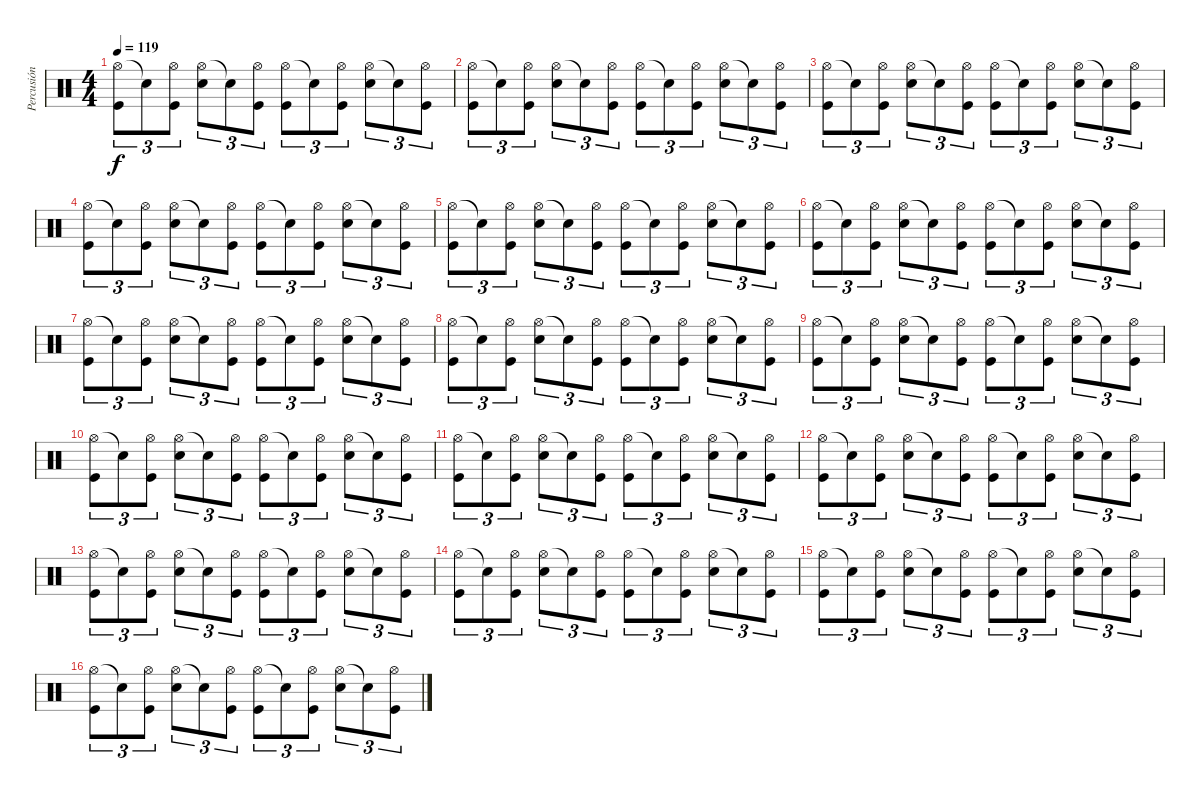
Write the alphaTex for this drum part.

\track ("Percusión" "Percusión") {instrument percussion}
\staff {score}
\articulation defaults
\ts (4 4)
\tempo 119
\clef neutral
\ks c
("Hi-Hat (open)" "Kick (hit)").8{tu (3 2) dy f} "Snare (hit)"{t}.8{tu (3 2)} ("Hi-Hat (open)" "Kick (hit)").8{tu (3 2)} ("Hi-Hat (open)" "Snare (hit) 2").8{tu (3 2)} "Snare (hit)"{t}.8{tu (3 2)} ("Hi-Hat (open)" "Kick (hit)").8{tu (3 2)} ("Hi-Hat (open)" "Kick (hit)").8{tu (3 2)} "Snare (hit)"{t}.8{tu (3 2)} ("Hi-Hat (open)" "Kick (hit)").8{tu (3 2)} ("Hi-Hat (open)" "Snare (hit) 2").8{tu (3 2)} "Snare (hit)"{t}.8{tu (3 2)} ("Hi-Hat (open)" "Kick (hit)").8{tu (3 2)} |
("Hi-Hat (open)" "Kick (hit)").8{tu (3 2)} "Snare (hit)"{t}.8{tu (3 2)} ("Hi-Hat (open)" "Kick (hit)").8{tu (3 2)} ("Hi-Hat (open)" "Snare (hit) 2").8{tu (3 2)} "Snare (hit)"{t}.8{tu (3 2)} ("Hi-Hat (open)" "Kick (hit)").8{tu (3 2)} ("Hi-Hat (open)" "Kick (hit)").8{tu (3 2)} "Snare (hit)"{t}.8{tu (3 2)} ("Hi-Hat (open)" "Kick (hit)").8{tu (3 2)} ("Hi-Hat (open)" "Snare (hit) 2").8{tu (3 2)} "Snare (hit)"{t}.8{tu (3 2)} ("Hi-Hat (open)" "Kick (hit)").8{tu (3 2)} |
("Hi-Hat (open)" "Kick (hit)").8{tu (3 2)} "Snare (hit)"{t}.8{tu (3 2)} ("Hi-Hat (open)" "Kick (hit)").8{tu (3 2)} ("Hi-Hat (open)" "Snare (hit) 2").8{tu (3 2)} "Snare (hit)"{t}.8{tu (3 2)} ("Hi-Hat (open)" "Kick (hit)").8{tu (3 2)} ("Hi-Hat (open)" "Kick (hit)").8{tu (3 2)} "Snare (hit)"{t}.8{tu (3 2)} ("Hi-Hat (open)" "Kick (hit)").8{tu (3 2)} ("Hi-Hat (open)" "Snare (hit) 2").8{tu (3 2)} "Snare (hit)"{t}.8{tu (3 2)} ("Hi-Hat (open)" "Kick (hit)").8{tu (3 2)} |
("Hi-Hat (open)" "Kick (hit)").8{tu (3 2)} "Snare (hit)"{t}.8{tu (3 2)} ("Hi-Hat (open)" "Kick (hit)").8{tu (3 2)} ("Hi-Hat (open)" "Snare (hit) 2").8{tu (3 2)} "Snare (hit)"{t}.8{tu (3 2)} ("Hi-Hat (open)" "Kick (hit)").8{tu (3 2)} ("Hi-Hat (open)" "Kick (hit)").8{tu (3 2)} "Snare (hit)"{t}.8{tu (3 2)} ("Hi-Hat (open)" "Kick (hit)").8{tu (3 2)} ("Hi-Hat (open)" "Snare (hit) 2").8{tu (3 2)} "Snare (hit)"{t}.8{tu (3 2)} ("Hi-Hat (open)" "Kick (hit)").8{tu (3 2)} |
("Hi-Hat (open)" "Kick (hit)").8{tu (3 2)} "Snare (hit)"{t}.8{tu (3 2)} ("Hi-Hat (open)" "Kick (hit)").8{tu (3 2)} ("Hi-Hat (open)" "Snare (hit) 2").8{tu (3 2)} "Snare (hit)"{t}.8{tu (3 2)} ("Hi-Hat (open)" "Kick (hit)").8{tu (3 2)} ("Hi-Hat (open)" "Kick (hit)").8{tu (3 2)} "Snare (hit)"{t}.8{tu (3 2)} ("Hi-Hat (open)" "Kick (hit)").8{tu (3 2)} ("Hi-Hat (open)" "Snare (hit) 2").8{tu (3 2)} "Snare (hit)"{t}.8{tu (3 2)} ("Hi-Hat (open)" "Kick (hit)").8{tu (3 2)} |
("Hi-Hat (open)" "Kick (hit)").8{tu (3 2)} "Snare (hit)"{t}.8{tu (3 2)} ("Hi-Hat (open)" "Kick (hit)").8{tu (3 2)} ("Hi-Hat (open)" "Snare (hit) 2").8{tu (3 2)} "Snare (hit)"{t}.8{tu (3 2)} ("Hi-Hat (open)" "Kick (hit)").8{tu (3 2)} ("Hi-Hat (open)" "Kick (hit)").8{tu (3 2)} "Snare (hit)"{t}.8{tu (3 2)} ("Hi-Hat (open)" "Kick (hit)").8{tu (3 2)} ("Hi-Hat (open)" "Snare (hit) 2").8{tu (3 2)} "Snare (hit)"{t}.8{tu (3 2)} ("Hi-Hat (open)" "Kick (hit)").8{tu (3 2)} |
("Hi-Hat (open)" "Kick (hit)").8{tu (3 2)} "Snare (hit)"{t}.8{tu (3 2)} ("Hi-Hat (open)" "Kick (hit)").8{tu (3 2)} ("Hi-Hat (open)" "Snare (hit) 2").8{tu (3 2)} "Snare (hit)"{t}.8{tu (3 2)} ("Hi-Hat (open)" "Kick (hit)").8{tu (3 2)} ("Hi-Hat (open)" "Kick (hit)").8{tu (3 2)} "Snare (hit)"{t}.8{tu (3 2)} ("Hi-Hat (open)" "Kick (hit)").8{tu (3 2)} ("Hi-Hat (open)" "Snare (hit) 2").8{tu (3 2)} "Snare (hit)"{t}.8{tu (3 2)} ("Hi-Hat (open)" "Kick (hit)").8{tu (3 2)} |
("Hi-Hat (open)" "Kick (hit)").8{tu (3 2)} "Snare (hit)"{t}.8{tu (3 2)} ("Hi-Hat (open)" "Kick (hit)").8{tu (3 2)} ("Hi-Hat (open)" "Snare (hit) 2").8{tu (3 2)} "Snare (hit)"{t}.8{tu (3 2)} ("Hi-Hat (open)" "Kick (hit)").8{tu (3 2)} ("Hi-Hat (open)" "Kick (hit)").8{tu (3 2)} "Snare (hit)"{t}.8{tu (3 2)} ("Hi-Hat (open)" "Kick (hit)").8{tu (3 2)} ("Hi-Hat (open)" "Snare (hit) 2").8{tu (3 2)} "Snare (hit)"{t}.8{tu (3 2)} ("Hi-Hat (open)" "Kick (hit)").8{tu (3 2)} |
("Hi-Hat (open)" "Kick (hit)").8{tu (3 2)} "Snare (hit)"{t}.8{tu (3 2)} ("Hi-Hat (open)" "Kick (hit)").8{tu (3 2)} ("Hi-Hat (open)" "Snare (hit) 2").8{tu (3 2)} "Snare (hit)"{t}.8{tu (3 2)} ("Hi-Hat (open)" "Kick (hit)").8{tu (3 2)} ("Hi-Hat (open)" "Kick (hit)").8{tu (3 2)} "Snare (hit)"{t}.8{tu (3 2)} ("Hi-Hat (open)" "Kick (hit)").8{tu (3 2)} ("Hi-Hat (open)" "Snare (hit) 2").8{tu (3 2)} "Snare (hit)"{t}.8{tu (3 2)} ("Hi-Hat (open)" "Kick (hit)").8{tu (3 2)} |
("Hi-Hat (open)" "Kick (hit)").8{tu (3 2)} "Snare (hit)"{t}.8{tu (3 2)} ("Hi-Hat (open)" "Kick (hit)").8{tu (3 2)} ("Hi-Hat (open)" "Snare (hit) 2").8{tu (3 2)} "Snare (hit)"{t}.8{tu (3 2)} ("Hi-Hat (open)" "Kick (hit)").8{tu (3 2)} ("Hi-Hat (open)" "Kick (hit)").8{tu (3 2)} "Snare (hit)"{t}.8{tu (3 2)} ("Hi-Hat (open)" "Kick (hit)").8{tu (3 2)} ("Hi-Hat (open)" "Snare (hit) 2").8{tu (3 2)} "Snare (hit)"{t}.8{tu (3 2)} ("Hi-Hat (open)" "Kick (hit)").8{tu (3 2)} |
("Hi-Hat (open)" "Kick (hit)").8{tu (3 2)} "Snare (hit)"{t}.8{tu (3 2)} ("Hi-Hat (open)" "Kick (hit)").8{tu (3 2)} ("Hi-Hat (open)" "Snare (hit) 2").8{tu (3 2)} "Snare (hit)"{t}.8{tu (3 2)} ("Hi-Hat (open)" "Kick (hit)").8{tu (3 2)} ("Hi-Hat (open)" "Kick (hit)").8{tu (3 2)} "Snare (hit)"{t}.8{tu (3 2)} ("Hi-Hat (open)" "Kick (hit)").8{tu (3 2)} ("Hi-Hat (open)" "Snare (hit) 2").8{tu (3 2)} "Snare (hit)"{t}.8{tu (3 2)} ("Hi-Hat (open)" "Kick (hit)").8{tu (3 2)} |
("Hi-Hat (open)" "Kick (hit)").8{tu (3 2)} "Snare (hit)"{t}.8{tu (3 2)} ("Hi-Hat (open)" "Kick (hit)").8{tu (3 2)} ("Hi-Hat (open)" "Snare (hit) 2").8{tu (3 2)} "Snare (hit)"{t}.8{tu (3 2)} ("Hi-Hat (open)" "Kick (hit)").8{tu (3 2)} ("Hi-Hat (open)" "Kick (hit)").8{tu (3 2)} "Snare (hit)"{t}.8{tu (3 2)} ("Hi-Hat (open)" "Kick (hit)").8{tu (3 2)} ("Hi-Hat (open)" "Snare (hit) 2").8{tu (3 2)} "Snare (hit)"{t}.8{tu (3 2)} ("Hi-Hat (open)" "Kick (hit)").8{tu (3 2)} |
("Hi-Hat (open)" "Kick (hit)").8{tu (3 2)} "Snare (hit)"{t}.8{tu (3 2)} ("Hi-Hat (open)" "Kick (hit)").8{tu (3 2)} ("Hi-Hat (open)" "Snare (hit) 2").8{tu (3 2)} "Snare (hit)"{t}.8{tu (3 2)} ("Hi-Hat (open)" "Kick (hit)").8{tu (3 2)} ("Hi-Hat (open)" "Kick (hit)").8{tu (3 2)} "Snare (hit)"{t}.8{tu (3 2)} ("Hi-Hat (open)" "Kick (hit)").8{tu (3 2)} ("Hi-Hat (open)" "Snare (hit) 2").8{tu (3 2)} "Snare (hit)"{t}.8{tu (3 2)} ("Hi-Hat (open)" "Kick (hit)").8{tu (3 2)} |
("Hi-Hat (open)" "Kick (hit)").8{tu (3 2)} "Snare (hit)"{t}.8{tu (3 2)} ("Hi-Hat (open)" "Kick (hit)").8{tu (3 2)} ("Hi-Hat (open)" "Snare (hit) 2").8{tu (3 2)} "Snare (hit)"{t}.8{tu (3 2)} ("Hi-Hat (open)" "Kick (hit)").8{tu (3 2)} ("Hi-Hat (open)" "Kick (hit)").8{tu (3 2)} "Snare (hit)"{t}.8{tu (3 2)} ("Hi-Hat (open)" "Kick (hit)").8{tu (3 2)} ("Hi-Hat (open)" "Snare (hit) 2").8{tu (3 2)} "Snare (hit)"{t}.8{tu (3 2)} ("Hi-Hat (open)" "Kick (hit)").8{tu (3 2)} |
("Hi-Hat (open)" "Kick (hit)").8{tu (3 2)} "Snare (hit)"{t}.8{tu (3 2)} ("Hi-Hat (open)" "Kick (hit)").8{tu (3 2)} ("Hi-Hat (open)" "Snare (hit) 2").8{tu (3 2)} "Snare (hit)"{t}.8{tu (3 2)} ("Hi-Hat (open)" "Kick (hit)").8{tu (3 2)} ("Hi-Hat (open)" "Kick (hit)").8{tu (3 2)} "Snare (hit)"{t}.8{tu (3 2)} ("Hi-Hat (open)" "Kick (hit)").8{tu (3 2)} ("Hi-Hat (open)" "Snare (hit) 2").8{tu (3 2)} "Snare (hit)"{t}.8{tu (3 2)} ("Hi-Hat (open)" "Kick (hit)").8{tu (3 2)} |
("Hi-Hat (open)" "Kick (hit)").8{tu (3 2)} "Snare (hit)"{t}.8{tu (3 2)} ("Hi-Hat (open)" "Kick (hit)").8{tu (3 2)} ("Hi-Hat (open)" "Snare (hit) 2").8{tu (3 2)} "Snare (hit)"{t}.8{tu (3 2)} ("Hi-Hat (open)" "Kick (hit)").8{tu (3 2)} ("Hi-Hat (open)" "Kick (hit)").8{tu (3 2)} "Snare (hit)"{t}.8{tu (3 2)} ("Hi-Hat (open)" "Kick (hit)").8{tu (3 2)} ("Hi-Hat (open)" "Snare (hit) 2").8{tu (3 2)} "Snare (hit)"{t}.8{tu (3 2)} ("Hi-Hat (open)" "Kick (hit)").8{tu (3 2)}
